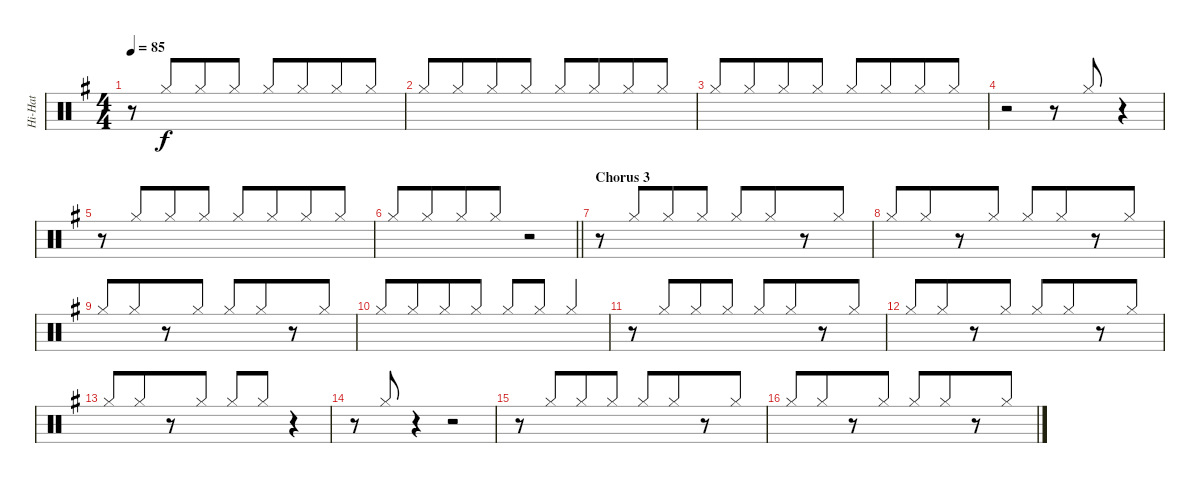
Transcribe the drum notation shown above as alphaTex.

\track ("Hi-Hat" "Hi-Hat") {instrument percussion}
\staff {score}
\articulation defaults
\ts (4 4)
\tempo 85
\clef neutral
\ks g
r.8{dy f} "Hi-Hat (closed)".8{beam Up beam merge} "Hi-Hat (closed)".8{beam Up} "Hi-Hat (closed)".8{beam Up} "Hi-Hat (closed)".8{beam Up} "Hi-Hat (closed)".8{beam Up beam merge} "Hi-Hat (closed)".8{beam Up} "Hi-Hat (closed)".8{beam Up} |
"Hi-Hat (closed)".8{beam Up} "Hi-Hat (closed)".8{beam Up beam merge} "Hi-Hat (closed)".8{beam Up} "Hi-Hat (closed)".8{beam Up} "Hi-Hat (closed)".8{beam Up} "Hi-Hat (closed)".8{beam Up beam merge} "Hi-Hat (closed)".8{beam Up} "Hi-Hat (closed)".8{beam Up} |
"Hi-Hat (closed)".8{beam Up} "Hi-Hat (closed)".8{beam Up beam merge} "Hi-Hat (closed)".8{beam Up} "Hi-Hat (closed)".8{beam Up} "Hi-Hat (closed)".8{beam Up} "Hi-Hat (closed)".8{beam Up beam merge} "Hi-Hat (closed)".8{beam Up} "Hi-Hat (closed)".8{beam Up} |
r.2 r.8 "Hi-Hat (closed)".8{beam Up} r.4 |
r.8 "Hi-Hat (closed)".8{beam Up beam merge} "Hi-Hat (closed)".8{beam Up} "Hi-Hat (closed)".8{beam Up} "Hi-Hat (closed)".8{beam Up} "Hi-Hat (closed)".8{beam Up beam merge} "Hi-Hat (closed)".8{beam Up} "Hi-Hat (closed)".8{beam Up} |
\barLineRight lightlight "Hi-Hat (closed)".8{beam Up} "Hi-Hat (closed)".8{beam Up beam merge} "Hi-Hat (closed)".8{beam Up} "Hi-Hat (closed)".8{beam Up}
r.2 |
\section ("" "Chorus 3")
r.8 "Hi-Hat (closed)".8{beam Up beam merge} "Hi-Hat (closed)".8{beam Up} "Hi-Hat (closed)".8{beam Up} "Hi-Hat (closed)".8{beam Up} "Hi-Hat (closed)".8{beam Up beam merge} r.8 "Hi-Hat (closed)".8{beam Up} |
"Hi-Hat (closed)".8{beam Up} "Hi-Hat (closed)".8{beam Up beam merge} r.8 "Hi-Hat (closed)".8{beam Up} "Hi-Hat (closed)".8{beam Up} "Hi-Hat (closed)".8{beam Up beam merge} r.8 "Hi-Hat (closed)".8{beam Up} |
"Hi-Hat (closed)".8{beam Up} "Hi-Hat (closed)".8{beam Up beam merge} r.8 "Hi-Hat (closed)".8{beam Up} "Hi-Hat (closed)".8{beam Up} "Hi-Hat (closed)".8{beam Up beam merge} r.8 "Hi-Hat (closed)".8{beam Up} |
"Hi-Hat (closed)".8{beam Up} "Hi-Hat (closed)".8{beam Up beam merge} "Hi-Hat (closed)".8{beam Up} "Hi-Hat (closed)".8{beam Up} "Hi-Hat (closed)".8{beam Up} "Hi-Hat (closed)".8{beam Up} "Hi-Hat (closed)".4{beam Up} |
r.8 "Hi-Hat (closed)".8{beam Up beam merge} "Hi-Hat (closed)".8{beam Up} "Hi-Hat (closed)".8{beam Up} "Hi-Hat (closed)".8{beam Up} "Hi-Hat (closed)".8{beam Up beam merge} r.8 "Hi-Hat (closed)".8{beam Up} |
"Hi-Hat (closed)".8{beam Up} "Hi-Hat (closed)".8{beam Up beam merge} r.8 "Hi-Hat (closed)".8{beam Up} "Hi-Hat (closed)".8{beam Up} "Hi-Hat (closed)".8{beam Up beam merge} r.8 "Hi-Hat (closed)".8{beam Up} |
"Hi-Hat (closed)".8{beam Up} "Hi-Hat (closed)".8{beam Up beam merge} r.8 "Hi-Hat (closed)".8{beam Up} "Hi-Hat (closed)".8{beam Up} "Hi-Hat (closed)".8{beam Up} r.4 |
r.8 "Hi-Hat (closed)".8{beam Up} r.4 r.2 |
r.8 "Hi-Hat (closed)".8{beam Up beam merge} "Hi-Hat (closed)".8{beam Up} "Hi-Hat (closed)".8{beam Up} "Hi-Hat (closed)".8{beam Up} "Hi-Hat (closed)".8{beam Up beam merge} r.8 "Hi-Hat (closed)".8{beam Up} |
"Hi-Hat (closed)".8{beam Up} "Hi-Hat (closed)".8{beam Up beam merge} r.8 "Hi-Hat (closed)".8{beam Up} "Hi-Hat (closed)".8{beam Up} "Hi-Hat (closed)".8{beam Up beam merge} r.8 "Hi-Hat (closed)".8{beam Up}
